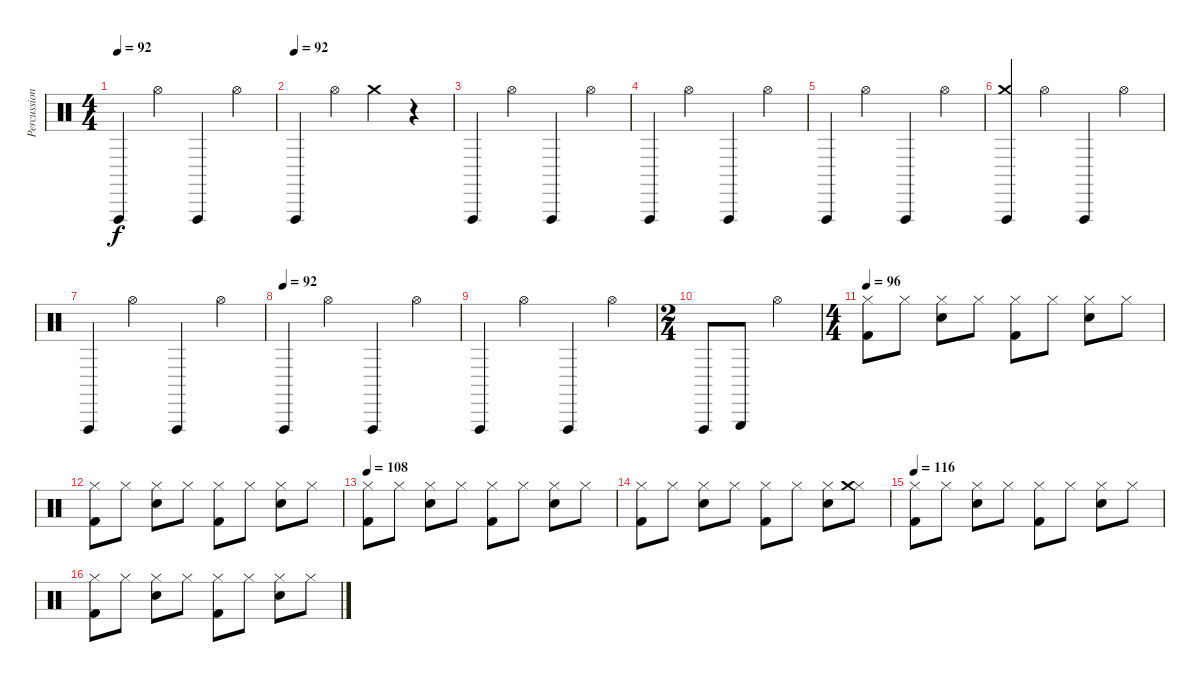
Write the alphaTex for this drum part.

\track ("Percussions" "Percussion") {instrument percussion}
\staff {score}
\articulation defaults
\ts (4 4)
\tempo 92
\clef neutral
\ks c "Vibraslap (hit)".4{dy f} "Hi-Hat (open)".4 "Vibraslap (hit)".4 "Hi-Hat (open)".4
|
\tempo (92)
"Vibraslap (hit)".4 "Hi-Hat (open)".4 "Crash medium (hit)".4 r.4 |
"Vibraslap (hit)".4 "Hi-Hat (open)".4 "Vibraslap (hit)".4 "Hi-Hat (open)".4 |
"Vibraslap (hit)".4 "Hi-Hat (open)".4 "Vibraslap (hit)".4 "Hi-Hat (open)".4 |
"Vibraslap (hit)".4 "Hi-Hat (open)".4 "Vibraslap (hit)".4 "Hi-Hat (open)".4 |
("Vibraslap (hit)" "Crash medium (hit)").4 "Hi-Hat (open)".4 "Vibraslap (hit)".4 "Hi-Hat (open)".4 |
"Vibraslap (hit)".4 "Hi-Hat (open)".4 "Vibraslap (hit)".4 "Hi-Hat (open)".4 |
\tempo (92)
"Vibraslap (hit)".4 "Hi-Hat (open)".4 "Vibraslap (hit)".4 "Hi-Hat (open)".4 |
"Vibraslap (hit)".4 "Hi-Hat (open)".4 "Vibraslap (hit)".4 "Hi-Hat (open)".4 |
\ts (2 4)
"Vibraslap (hit)".8 "Triangle (hit)".8 "Hi-Hat (open)".4 |
\ts (4 4)
\tempo 96
("Hi-Hat (closed)" "Kick (hit) 2").8{volume 14} "Hi-Hat (closed)".8 ("Hi-Hat (closed)" "Electric Snare (hit)").8 "Hi-Hat (closed)".8 ("Hi-Hat (closed)" "Kick (hit) 2").8 "Hi-Hat (closed)".8 ("Hi-Hat (closed)" "Electric Snare (hit)").8 "Hi-Hat (closed)".8 |
("Hi-Hat (closed)" "Kick (hit) 2").8 "Hi-Hat (closed)".8 ("Hi-Hat (closed)" "Electric Snare (hit)").8 "Hi-Hat (closed)".8 ("Hi-Hat (closed)" "Kick (hit) 2").8 "Hi-Hat (closed)".8 ("Hi-Hat (closed)" "Electric Snare (hit)").8 "Hi-Hat (closed)".8 |
\tempo 108
("Hi-Hat (closed)" "Kick (hit) 2").8 "Hi-Hat (closed)".8 ("Hi-Hat (closed)" "Electric Snare (hit)").8 "Hi-Hat (closed)".8 ("Hi-Hat (closed)" "Kick (hit) 2").8 "Hi-Hat (closed)".8 ("Hi-Hat (closed)" "Electric Snare (hit)").8 "Hi-Hat (closed)".8 |
("Hi-Hat (closed)" "Kick (hit) 2").8 "Hi-Hat (closed)".8 ("Hi-Hat (closed)" "Electric Snare (hit)").8 "Hi-Hat (closed)".8 ("Hi-Hat (closed)" "Kick (hit) 2").8 "Hi-Hat (closed)".8 ("Hi-Hat (closed)" "Electric Snare (hit)").8 ("Hi-Hat (closed)" "Crash medium (hit)").8 |
\tempo 116
("Hi-Hat (closed)" "Kick (hit) 2").8 "Hi-Hat (closed)".8 ("Hi-Hat (closed)" "Electric Snare (hit)").8 "Hi-Hat (closed)".8 ("Hi-Hat (closed)" "Kick (hit) 2").8 "Hi-Hat (closed)".8 ("Hi-Hat (closed)" "Electric Snare (hit)").8 "Hi-Hat (closed)".8 |
("Hi-Hat (closed)" "Kick (hit) 2").8 "Hi-Hat (closed)".8 ("Hi-Hat (closed)" "Electric Snare (hit)").8 "Hi-Hat (closed)".8 ("Hi-Hat (closed)" "Kick (hit) 2").8 "Hi-Hat (closed)".8 ("Hi-Hat (closed)" "Electric Snare (hit)").8 "Hi-Hat (closed)".8
